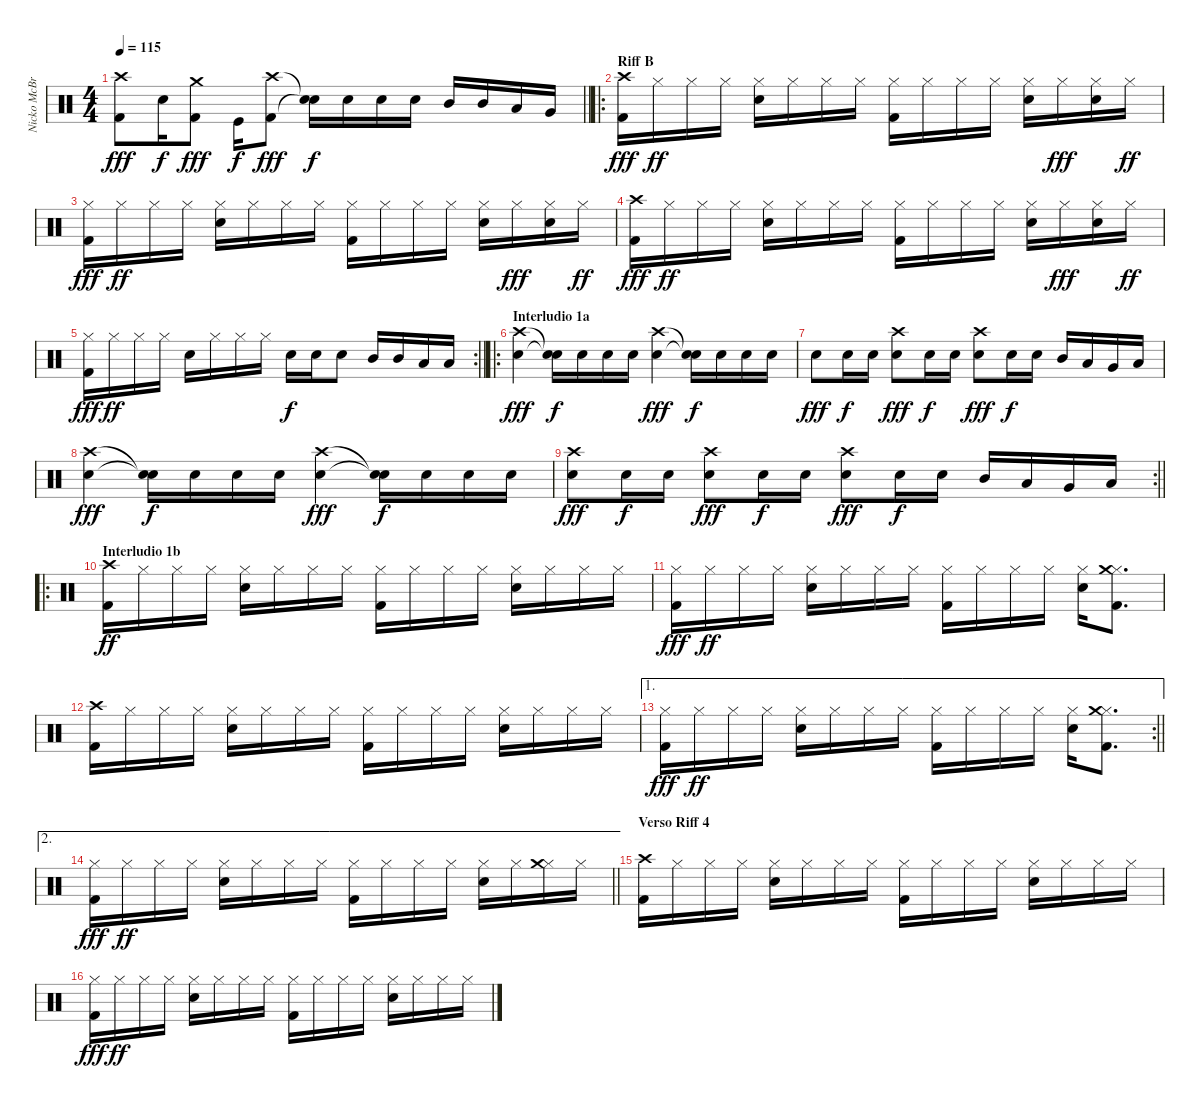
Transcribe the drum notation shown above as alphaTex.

\track ("Nicko McBrain" "Nicko McBr") {instrument percussion}
\staff {score}
\articulation defaults
\ts (4 4)
\tempo 115
\clef neutral
\barLineRight lightlight
\ks c
("Kick (hit) 2" "Crash high (hit)").8{dy fff} "Snare (hit) 2".16{dy f} ("Kick (hit) 2" "Crash medium (hit)").8{dy fff} "Kick (hit)".16{dy f} ("Kick (hit) 2" "Crash high (hit)").8{dy fff} ("Snare (hit)"{t} "Snare (hit)"{t}).16{dy f} "Snare (hit) 2".16 "Snare (hit) 2".16 "Snare (hit) 2".16 "Mid Tom (hit)".16 "Mid Tom (hit)".16 "Low Tom (hit)".16 "Very Low Tom (hit)".16 |
\ro
\section ("" "Riff B")
("Kick (hit) 2" "Crash high (hit)").16{dy fff} "Hi-Hat (closed)".16{dy ff} "Hi-Hat (closed)".16 "Hi-Hat (closed)".16 ("Snare (hit) 2" "Hi-Hat (closed)").16 "Hi-Hat (closed)".16 "Hi-Hat (closed)".16 "Hi-Hat (closed)".16 ("Kick (hit) 2" "Hi-Hat (closed)").16 "Hi-Hat (closed)".16 "Hi-Hat (closed)".16 "Hi-Hat (closed)".16 ("Snare (hit) 2" "Hi-Hat (closed)").16 "Hi-Hat (closed)".16{dy fff} ("Snare (hit) 2" "Hi-Hat (closed)").16 "Hi-Hat (closed)".16{dy ff} |
("Kick (hit) 2" "Hi-Hat (closed)").16{dy fff} "Hi-Hat (closed)".16{dy ff} "Hi-Hat (closed)".16 "Hi-Hat (closed)".16 ("Snare (hit) 2" "Hi-Hat (closed)").16 "Hi-Hat (closed)".16 "Hi-Hat (closed)".16 "Hi-Hat (closed)".16 ("Kick (hit) 2" "Hi-Hat (closed)").16 "Hi-Hat (closed)".16 "Hi-Hat (closed)".16 "Hi-Hat (closed)".16 ("Snare (hit) 2" "Hi-Hat (closed)").16 "Hi-Hat (closed)".16{dy fff} ("Snare (hit) 2" "Hi-Hat (closed)").16 "Hi-Hat (closed)".16{dy ff} |
("Kick (hit) 2" "Crash high (hit)").16{dy fff} "Hi-Hat (closed)".16{dy ff} "Hi-Hat (closed)".16 "Hi-Hat (closed)".16 ("Snare (hit) 2" "Hi-Hat (closed)").16 "Hi-Hat (closed)".16 "Hi-Hat (closed)".16 "Hi-Hat (closed)".16 ("Kick (hit) 2" "Hi-Hat (closed)").16 "Hi-Hat (closed)".16 "Hi-Hat (closed)".16 "Hi-Hat (closed)".16 ("Snare (hit) 2" "Hi-Hat (closed)").16 "Hi-Hat (closed)".16{dy fff} ("Snare (hit) 2" "Hi-Hat (closed)").16 "Hi-Hat (closed)".16{dy ff} |
\rc 2
\barLineRight lightlight
("Kick (hit) 2" "Hi-Hat (closed)").16{dy fff} "Hi-Hat (closed)".16{dy ff} "Hi-Hat (closed)".16 "Hi-Hat (closed)".16 "Snare (hit) 2".16 "Hi-Hat (closed)".16 "Hi-Hat (closed)".16 "Hi-Hat (closed)".16 "Snare (hit) 2".16{dy f} "Snare (hit) 2".16 "Snare (hit) 2".8 "Mid Tom (hit)".16 "Mid Tom (hit)".16 "Low Tom (hit)".16 "Low Tom (hit)".16 |
\ro
\section ("" "Interludio 1a")
("Snare (hit) 2" "Crash high (hit)").4{dy fff} ("Snare (hit)"{t} "Snare (hit)"{t}).16{dy f} "Snare (hit) 2".16 "Snare (hit) 2".16 "Snare (hit) 2".16 ("Snare (hit) 2" "Crash high (hit)").4{dy fff} ("Snare (hit)"{t} "Snare (hit)"{t}).16{dy f} "Snare (hit) 2".16 "Snare (hit) 2".16 "Snare (hit) 2".16 |
"Snare (hit) 2".8{dy fff} "Snare (hit) 2".16{dy f} "Snare (hit) 2".16 ("Snare (hit) 2" "Crash high (hit)").8{dy fff} "Snare (hit) 2".16{dy f} "Snare (hit) 2".16 ("Snare (hit) 2" "Crash high (hit)").8{dy fff} "Snare (hit) 2".16{dy f} "Snare (hit) 2".16 "Mid Tom (hit)".16 "Low Tom (hit)".16 "Very Low Tom (hit)".16 "Low Floor Tom (hit)".16 |
("Snare (hit) 2" "Crash high (hit)").4{dy fff} ("Snare (hit)"{t} "Snare (hit)"{t}).16{dy f} "Snare (hit) 2".16 "Snare (hit) 2".16 "Snare (hit) 2".16 ("Snare (hit) 2" "Crash high (hit)").4{dy fff} ("Snare (hit)"{t} "Snare (hit)"{t}).16{dy f} "Snare (hit) 2".16 "Snare (hit) 2".16 "Snare (hit) 2".16 |
\rc 2
\barLineRight lightlight
("Snare (hit) 2" "Crash high (hit)").8{dy fff} "Snare (hit) 2".16{dy f} "Snare (hit) 2".16 ("Snare (hit) 2" "Crash high (hit)").8{dy fff} "Snare (hit) 2".16{dy f} "Snare (hit) 2".16 ("Snare (hit) 2" "Crash high (hit)").8{dy fff} "Snare (hit) 2".16{dy f} "Snare (hit) 2".16 "Mid Tom (hit)".16 "Low Tom (hit)".16 "Very Low Tom (hit)".16 "Low Floor Tom (hit)".16 |
\ro
\section ("" "Interludio 1b")
("Kick (hit) 2" "Crash high (hit)").16{dy ff} "Hi-Hat (closed)".16 "Hi-Hat (closed)".16 "Hi-Hat (closed)".16 ("Snare (hit) 2" "Hi-Hat (closed)").16 "Hi-Hat (closed)".16 "Hi-Hat (closed)".16 "Hi-Hat (closed)".16 ("Kick (hit) 2" "Hi-Hat (closed)").16 "Hi-Hat (closed)".16 "Hi-Hat (closed)".16 "Hi-Hat (closed)".16 ("Snare (hit) 2" "Hi-Hat (closed)").16 "Hi-Hat (closed)".16 "Hi-Hat (closed)".16 "Hi-Hat (closed)".16 |
("Kick (hit) 2" "Hi-Hat (closed)").16{dy fff} "Hi-Hat (closed)".16{dy ff} "Hi-Hat (closed)".16 "Hi-Hat (closed)".16 ("Snare (hit) 2" "Hi-Hat (closed)").16 "Hi-Hat (closed)".16 "Hi-Hat (closed)".16 "Hi-Hat (closed)".16 ("Kick (hit) 2" "Hi-Hat (closed)").16 "Hi-Hat (closed)".16 "Hi-Hat (closed)".16 "Hi-Hat (closed)".16 ("Snare (hit) 2" "Hi-Hat (closed)").16 ("Hi-Hat (closed)" "Kick (hit) 2" "Crash medium (hit)").8{d} |
("Kick (hit) 2" "Crash high (hit)").16 "Hi-Hat (closed)".16 "Hi-Hat (closed)".16 "Hi-Hat (closed)".16 ("Snare (hit) 2" "Hi-Hat (closed)").16 "Hi-Hat (closed)".16 "Hi-Hat (closed)".16 "Hi-Hat (closed)".16 ("Kick (hit) 2" "Hi-Hat (closed)").16 "Hi-Hat (closed)".16 "Hi-Hat (closed)".16 "Hi-Hat (closed)".16 ("Snare (hit) 2" "Hi-Hat (closed)").16 "Hi-Hat (closed)".16 "Hi-Hat (closed)".16 "Hi-Hat (closed)".16 |
\ae 1
\rc 2
\barLineRight lightlight
("Kick (hit) 2" "Hi-Hat (closed)").16{dy fff} "Hi-Hat (closed)".16{dy ff} "Hi-Hat (closed)".16 "Hi-Hat (closed)".16 ("Snare (hit) 2" "Hi-Hat (closed)").16 "Hi-Hat (closed)".16 "Hi-Hat (closed)".16 "Hi-Hat (closed)".16 ("Kick (hit) 2" "Hi-Hat (closed)").16 "Hi-Hat (closed)".16 "Hi-Hat (closed)".16 "Hi-Hat (closed)".16 ("Snare (hit) 2" "Hi-Hat (closed)").16 ("Hi-Hat (closed)" "Kick (hit) 2" "Crash medium (hit)").8{d} |
\ae 2
\barLineRight lightlight
("Kick (hit) 2" "Hi-Hat (closed)").16{dy fff} "Hi-Hat (closed)".16{dy ff} "Hi-Hat (closed)".16 "Hi-Hat (closed)".16 ("Snare (hit) 2" "Hi-Hat (closed)").16 "Hi-Hat (closed)".16 "Hi-Hat (closed)".16 "Hi-Hat (closed)".16 ("Kick (hit) 2" "Hi-Hat (closed)").16 "Hi-Hat (closed)".16 "Hi-Hat (closed)".16 "Hi-Hat (closed)".16 ("Snare (hit) 2" "Hi-Hat (closed)").16 "Hi-Hat (closed)".16 ("Hi-Hat (closed)" "Crash medium (hit)").16 "Hi-Hat (closed)".16 |
\section ("" "Verso Riff 4")
("Kick (hit) 2" "Crash high (hit)").16 "Hi-Hat (closed)".16 "Hi-Hat (closed)".16 "Hi-Hat (closed)".16 ("Snare (hit) 2" "Hi-Hat (closed)").16 "Hi-Hat (closed)".16 "Hi-Hat (closed)".16 "Hi-Hat (closed)".16 ("Kick (hit) 2" "Hi-Hat (closed)").16 "Hi-Hat (closed)".16 "Hi-Hat (closed)".16 "Hi-Hat (closed)".16 ("Snare (hit) 2" "Hi-Hat (closed)").16 "Hi-Hat (closed)".16 "Hi-Hat (closed)".16 "Hi-Hat (closed)".16 |
("Kick (hit) 2" "Hi-Hat (closed)").16{dy fff} "Hi-Hat (closed)".16{dy ff} "Hi-Hat (closed)".16 "Hi-Hat (closed)".16 ("Snare (hit) 2" "Hi-Hat (closed)").16 "Hi-Hat (closed)".16 "Hi-Hat (closed)".16 "Hi-Hat (closed)".16 ("Kick (hit) 2" "Hi-Hat (closed)").16 "Hi-Hat (closed)".16 "Hi-Hat (closed)".16 "Hi-Hat (closed)".16 ("Snare (hit) 2" "Hi-Hat (closed)").16 "Hi-Hat (closed)".16 "Hi-Hat (closed)".16 "Hi-Hat (closed)".16
